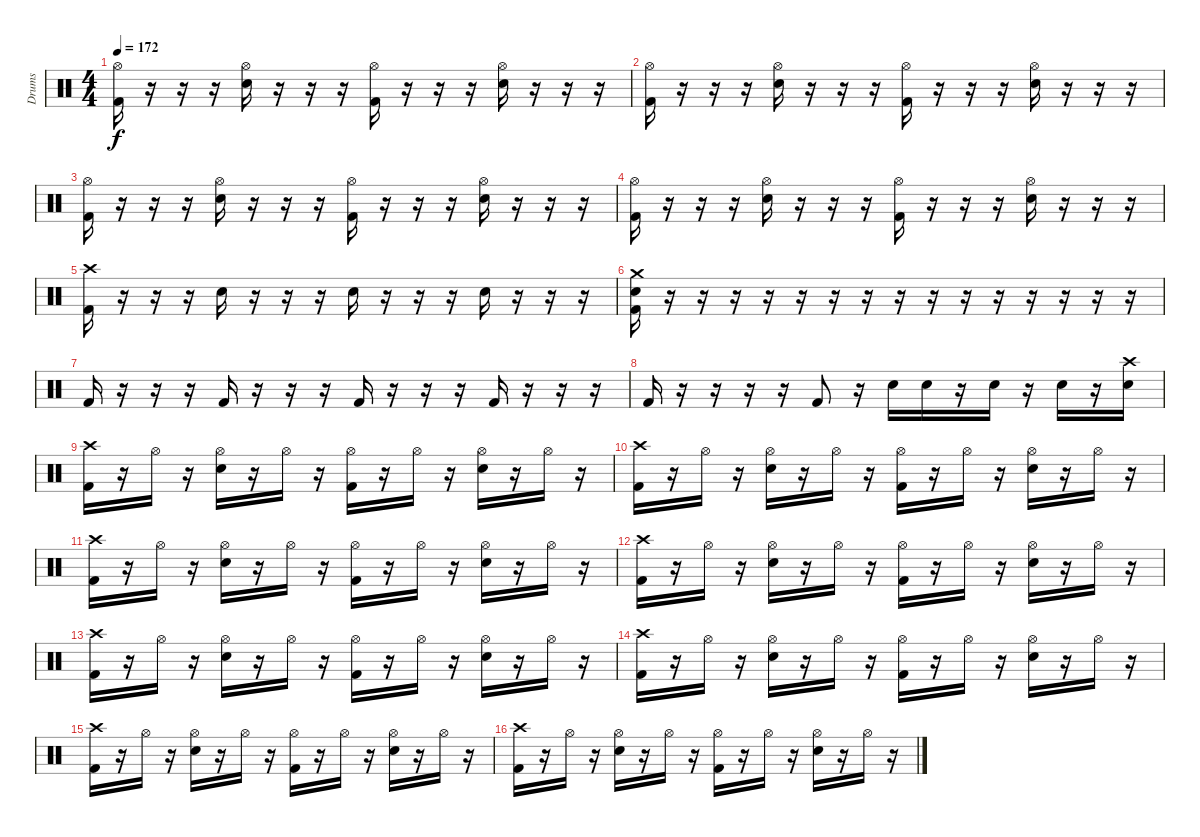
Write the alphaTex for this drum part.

\track ("Drums" "Drums") {instrument percussion}
\staff {score}
\articulation defaults
\ts (4 4)
\tempo 172
\clef neutral
\ks c
("Hi-Hat (open)" "Kick (hit) 2").16{dy f} r.16 r.16 r.16 ("Hi-Hat (open)" "Electric Snare (hit)").16 r.16 r.16 r.16 ("Hi-Hat (open)" "Kick (hit) 2").16 r.16 r.16 r.16 ("Hi-Hat (open)" "Electric Snare (hit)").16 r.16 r.16 r.16 |
("Hi-Hat (open)" "Kick (hit) 2").16 r.16 r.16 r.16 ("Hi-Hat (open)" "Electric Snare (hit)").16 r.16 r.16 r.16 ("Hi-Hat (open)" "Kick (hit) 2").16 r.16 r.16 r.16 ("Hi-Hat (open)" "Electric Snare (hit)").16 r.16 r.16 r.16 |
("Hi-Hat (open)" "Kick (hit) 2").16 r.16 r.16 r.16 ("Hi-Hat (open)" "Electric Snare (hit)").16 r.16 r.16 r.16 ("Hi-Hat (open)" "Kick (hit) 2").16 r.16 r.16 r.16 ("Hi-Hat (open)" "Electric Snare (hit)").16 r.16 r.16 r.16 |
("Hi-Hat (open)" "Kick (hit) 2").16 r.16 r.16 r.16 ("Hi-Hat (open)" "Electric Snare (hit)").16 r.16 r.16 r.16 ("Hi-Hat (open)" "Kick (hit) 2").16 r.16 r.16 r.16 ("Hi-Hat (open)" "Electric Snare (hit)").16 r.16 r.16 r.16 |
("Crash high (hit)" "Kick (hit) 2").16 r.16 r.16 r.16 "Electric Snare (hit)".16 r.16 r.16 r.16 "Electric Snare (hit)".16 r.16 r.16 r.16 "Electric Snare (hit)".16 r.16 r.16 r.16 |
("Crash medium (hit)" "Electric Snare (hit)" "Kick (hit) 2").16 r.16 r.16 r.16 r.16 r.16 r.16 r.16 r.16 r.16 r.16 r.16 r.16 r.16 r.16 r.16 |
"Kick (hit) 2".16 r.16 r.16 r.16 "Kick (hit) 2".16 r.16 r.16 r.16 "Kick (hit) 2".16 r.16 r.16 r.16 "Kick (hit) 2".16 r.16 r.16 r.16 |
"Kick (hit) 2".16 r.16 r.16 r.16 r.16 "Kick (hit) 2".8 r.16 "Electric Snare (hit)".16 "Electric Snare (hit)".16 r.16 "Electric Snare (hit)".16 r.16 "Electric Snare (hit)".16 r.16 ("Crash high (hit)" "Electric Snare (hit)").16 |
("Crash high (hit)" "Kick (hit) 2").16 r.16 "Hi-Hat (open)".16 r.16 ("Hi-Hat (open)" "Electric Snare (hit)").16 r.16 "Hi-Hat (open)".16 r.16 ("Hi-Hat (open)" "Kick (hit) 2").16 r.16 "Hi-Hat (open)".16 r.16 ("Hi-Hat (open)" "Electric Snare (hit)").16 r.16 "Hi-Hat (open)".16 r.16 |
("Crash high (hit)" "Kick (hit) 2").16 r.16 "Hi-Hat (open)".16 r.16 ("Hi-Hat (open)" "Electric Snare (hit)").16 r.16 "Hi-Hat (open)".16 r.16 ("Hi-Hat (open)" "Kick (hit) 2").16 r.16 "Hi-Hat (open)".16 r.16 ("Hi-Hat (open)" "Electric Snare (hit)").16 r.16 "Hi-Hat (open)".16 r.16 |
("Crash high (hit)" "Kick (hit) 2").16 r.16 "Hi-Hat (open)".16 r.16 ("Hi-Hat (open)" "Electric Snare (hit)").16 r.16 "Hi-Hat (open)".16 r.16 ("Hi-Hat (open)" "Kick (hit) 2").16 r.16 "Hi-Hat (open)".16 r.16 ("Hi-Hat (open)" "Electric Snare (hit)").16 r.16 "Hi-Hat (open)".16 r.16 |
("Crash high (hit)" "Kick (hit) 2").16 r.16 "Hi-Hat (open)".16 r.16 ("Hi-Hat (open)" "Electric Snare (hit)").16 r.16 "Hi-Hat (open)".16 r.16 ("Hi-Hat (open)" "Kick (hit) 2").16 r.16 "Hi-Hat (open)".16 r.16 ("Hi-Hat (open)" "Electric Snare (hit)").16 r.16 "Hi-Hat (open)".16 r.16 |
("Crash high (hit)" "Kick (hit) 2").16 r.16 "Hi-Hat (open)".16 r.16 ("Hi-Hat (open)" "Electric Snare (hit)").16 r.16 "Hi-Hat (open)".16 r.16 ("Hi-Hat (open)" "Kick (hit) 2").16 r.16 "Hi-Hat (open)".16 r.16 ("Hi-Hat (open)" "Electric Snare (hit)").16 r.16 "Hi-Hat (open)".16 r.16 |
("Crash high (hit)" "Kick (hit) 2").16 r.16 "Hi-Hat (open)".16 r.16 ("Hi-Hat (open)" "Electric Snare (hit)").16 r.16 "Hi-Hat (open)".16 r.16 ("Hi-Hat (open)" "Kick (hit) 2").16 r.16 "Hi-Hat (open)".16 r.16 ("Hi-Hat (open)" "Electric Snare (hit)").16 r.16 "Hi-Hat (open)".16 r.16 |
("Crash high (hit)" "Kick (hit) 2").16 r.16 "Hi-Hat (open)".16 r.16 ("Hi-Hat (open)" "Electric Snare (hit)").16 r.16 "Hi-Hat (open)".16 r.16 ("Hi-Hat (open)" "Kick (hit) 2").16 r.16 "Hi-Hat (open)".16 r.16 ("Hi-Hat (open)" "Electric Snare (hit)").16 r.16 "Hi-Hat (open)".16 r.16 |
("Crash high (hit)" "Kick (hit) 2").16 r.16 "Hi-Hat (open)".16 r.16 ("Hi-Hat (open)" "Electric Snare (hit)").16 r.16 "Hi-Hat (open)".16 r.16 ("Hi-Hat (open)" "Kick (hit) 2").16 r.16 "Hi-Hat (open)".16 r.16 ("Hi-Hat (open)" "Electric Snare (hit)").16 r.16 "Hi-Hat (open)".16 r.16
